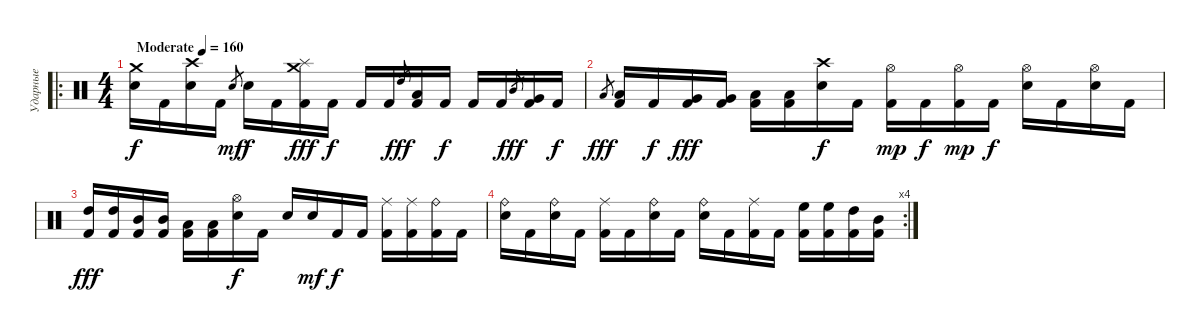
\track ("Ударные" "Ударные") {instrument percussion}
\staff {score}
\articulation defaults
\ro
\ts (4 4)
\tempo (160 "Moderate")
\clef neutral
\ks c
("Crash medium (hit)" "Electric Snare (hit)").16{dy f} "Kick (hit) 2".16 ("Crash high (hit)" "Electric Snare (hit)").16 "Kick (hit) 2".16 "Electric Snare (hit)".8{gr dy mf} "Electric Snare (hit)".16{dy f} "Kick (hit) 2".16 ("Crash medium (hit)" "Splash (hit)" "Kick (hit) 2").16{dy fff} "Kick (hit) 2".16{dy f} "Kick (hit) 2".16 "Kick (hit) 2".16 "High Tom (hit)".8{gr dy fff} ("Low Tom (hit)" "Kick (hit) 2").16 "Kick (hit) 2".16{dy f} "Kick (hit) 2".16 "Kick (hit) 2".16 "Mid Tom (hit)".8{gr dy fff} ("Very Low Tom (hit)" "Kick (hit) 2").16 "Kick (hit) 2".16{dy f} |
"Low Tom (hit)".8{gr dy fff} ("Low Floor Tom (hit)" "Kick (hit) 2").16 "Kick (hit) 2".16{dy f} ("Very Low Tom (hit)" "Kick (hit) 2").16{dy fff} ("Very Low Tom (hit)" "Kick (hit) 2").16 ("Low Floor Tom (hit)" "Kick (hit) 2").16 ("Low Floor Tom (hit)" "Kick (hit) 2").16 ("Crash high (hit)" "Electric Snare (hit)").16{dy f} "Kick (hit) 2".16 ("Hi-Hat (open)" "Kick (hit) 2").16{dy mp} "Kick (hit) 2".16{dy f} ("Hi-Hat (open)" "Kick (hit) 2").16{dy mp} "Kick (hit) 2".16{dy f} ("Hi-Hat (open)" "Electric Snare (hit)").16 "Kick (hit) 2".16 ("Hi-Hat (open)" "Electric Snare (hit)").16 "Kick (hit) 2".16 |
("High Tom (hit)" "Kick (hit) 2").16{dy fff} ("High Tom (hit)" "Kick (hit) 2").16 ("Mid Tom (hit)" "Kick (hit) 2").16 ("Mid Tom (hit)" "Kick (hit) 2").16 ("Low Tom (hit)" "Kick (hit) 2").16 ("Low Tom (hit)" "Kick (hit) 2").16 ("Hi-Hat (open)" "Electric Snare (hit)").16{dy f} "Kick (hit) 2".16 "Electric Snare (hit)".16 "Electric Snare (hit)".16{dy mf} "Kick (hit) 2".16{dy f} "Kick (hit) 2".16 ("Ride (middle)" "Kick (hit) 2").16 ("Ride (middle)" "Kick (hit) 2").16 ("Ride (bell)" "Kick (hit) 2").16 "Kick (hit) 2".16 |
\rc 4
("Ride (bell)" "Electric Snare (hit)").16 "Kick (hit) 2".16 ("Ride (bell)" "Electric Snare (hit)").16 "Kick (hit) 2".16 ("Ride (middle)" "Kick (hit) 2").16 "Kick (hit) 2".16 ("Ride (bell)" "Electric Snare (hit)").16 "Kick (hit) 2".16 ("Ride (bell)" "Electric Snare (hit)").16 "Kick (hit) 2".16 ("Ride (middle)" "Kick (hit) 2").16 "Kick (hit) 2".16 ("High Floor Tom (hit)" "Kick (hit) 2").16 ("High Floor Tom (hit)" "Kick (hit) 2").16 ("High Tom (hit)" "Kick (hit) 2").16 ("Mid Tom (hit)" "Kick (hit) 2").16
